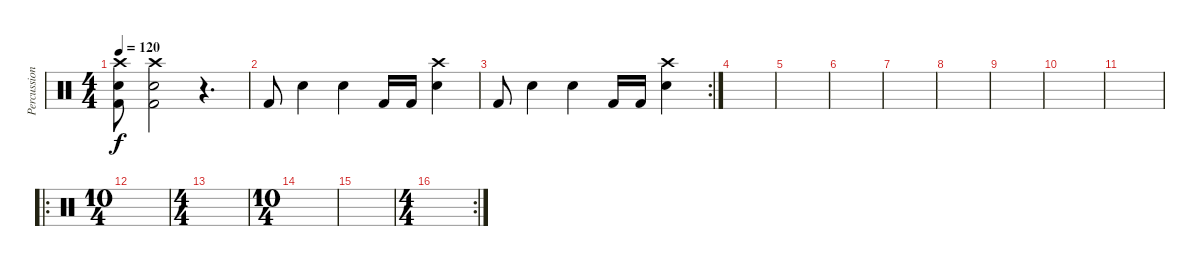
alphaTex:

\track ("Percussion" "Percussion") {instrument percussion}
\staff {score}
\articulation defaults
\ts (4 4)
\tempo 120
\clef neutral
\ks c
("Crash high (hit)" "Electric Snare (hit)" "Kick (hit) 2").8{dy f} ("Crash high (hit)" "Electric Snare (hit)" "Kick (hit) 2").2 r.4{d} |
"Kick (hit) 2".8 "Electric Snare (hit)".4 "Electric Snare (hit)".4 "Kick (hit) 2".16 "Kick (hit) 2".16 ("Crash high (hit)" "Electric Snare (hit)").4 |
\rc 2 "Kick (hit) 2".8 "Electric Snare (hit)".4 "Electric Snare (hit)".4 "Kick (hit) 2".16 "Kick (hit) 2".16
("Crash high (hit)" "Electric Snare (hit)").4 |
|
|
|
|
|
|
|
|
\ro
\ts (10 4)
|
\ts (4 4)
|
\ts (10 4)
|
|
\rc 2
\ts (4 4)
